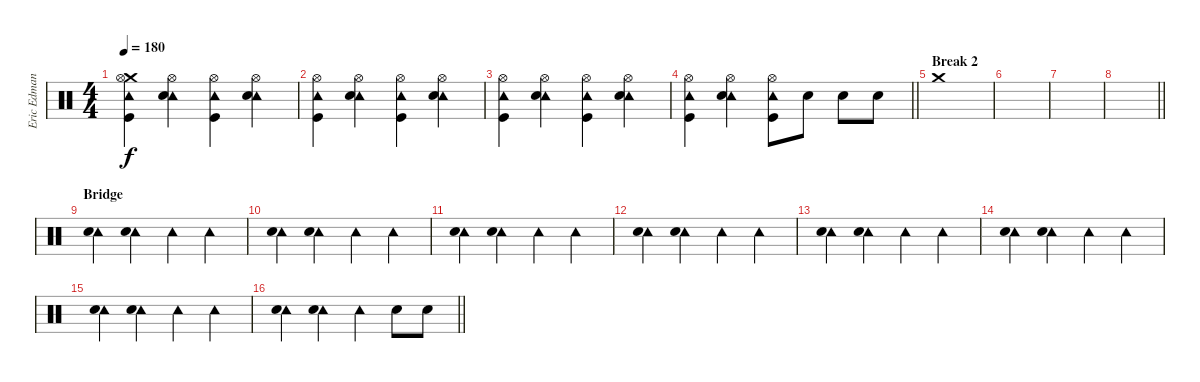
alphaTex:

\track ("Eric Edman - Drums" "Eric Edman") {instrument percussion}
\staff {score}
\articulation defaults
\ts (4 4)
\tempo 180
\clef neutral
\ks c
("Crash medium (hit)" "Tambourine (hit)" "Kick (hit)" "Hi-Hat (open)").4{dy f} ("Tambourine (hit)" "Snare (hit) 2" "Hi-Hat (open)").4 ("Tambourine (hit)" "Kick (hit)" "Hi-Hat (open)").4 ("Tambourine (hit)" "Snare (hit) 2" "Hi-Hat (open)").4 |
("Tambourine (hit)" "Kick (hit)" "Hi-Hat (open)").4 ("Tambourine (hit)" "Snare (hit) 2" "Hi-Hat (open)").4 ("Tambourine (hit)" "Kick (hit)" "Hi-Hat (open)").4 ("Tambourine (hit)" "Snare (hit) 2" "Hi-Hat (open)").4 |
("Tambourine (hit)" "Kick (hit)" "Hi-Hat (open)").4 ("Tambourine (hit)" "Snare (hit) 2" "Hi-Hat (open)").4 ("Tambourine (hit)" "Kick (hit)" "Hi-Hat (open)").4 ("Tambourine (hit)" "Snare (hit) 2" "Hi-Hat (open)").4 |
\barLineRight lightlight
("Tambourine (hit)" "Kick (hit)" "Hi-Hat (open)").4 ("Tambourine (hit)" "Snare (hit) 2" "Hi-Hat (open)").4 ("Tambourine (hit)" "Kick (hit)" "Hi-Hat (open)").8 "Snare (hit) 2".8 "Snare (hit) 2".8 "Snare (hit) 2".8 |
\section ("" "Break 2")
"Crash medium (hit)".1 |
|
|
\barLineRight lightlight
|
\section ("" "Bridge")
("Tambourine (hit)" "Snare (hit) 2").4 ("Tambourine (hit)" "Snare (hit) 2").4 "Tambourine (hit)".4 "Tambourine (hit)".4 |
("Tambourine (hit)" "Snare (hit) 2").4 ("Tambourine (hit)" "Snare (hit) 2").4 "Tambourine (hit)".4 "Tambourine (hit)".4 |
("Tambourine (hit)" "Snare (hit) 2").4 ("Tambourine (hit)" "Snare (hit) 2").4 "Tambourine (hit)".4 "Tambourine (hit)".4 |
("Tambourine (hit)" "Snare (hit) 2").4 ("Tambourine (hit)" "Snare (hit) 2").4 "Tambourine (hit)".4 "Tambourine (hit)".4 |
("Tambourine (hit)" "Snare (hit) 2").4 ("Tambourine (hit)" "Snare (hit) 2").4 "Tambourine (hit)".4 "Tambourine (hit)".4 |
("Tambourine (hit)" "Snare (hit) 2").4 ("Tambourine (hit)" "Snare (hit) 2").4 "Tambourine (hit)".4 "Tambourine (hit)".4 |
("Tambourine (hit)" "Snare (hit) 2").4 ("Tambourine (hit)" "Snare (hit) 2").4 "Tambourine (hit)".4 "Tambourine (hit)".4 |
\barLineRight lightlight
("Tambourine (hit)" "Snare (hit) 2").4 ("Tambourine (hit)" "Snare (hit) 2").4 "Tambourine (hit)".4 "Snare (hit) 2".8 "Snare (hit) 2".8
